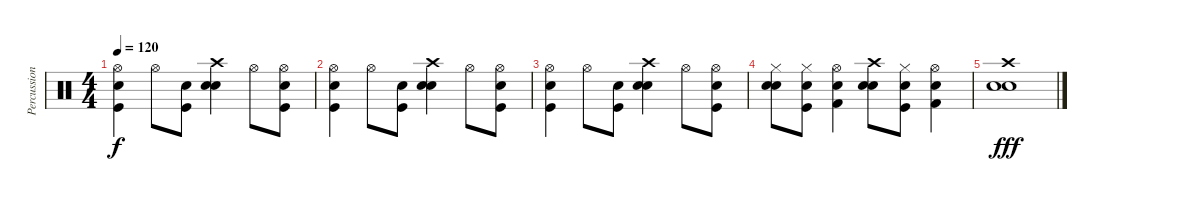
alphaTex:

\track ("Percussions" "Percussion") {instrument percussion}
\staff {score}
\articulation defaults
\ts (4 4)
\tempo 120
\clef neutral
\ks c
("Hi-Hat (open)" "Snare (hit) 2" "Kick (hit)").4{dy f} "Hi-Hat (open)".8 ("Snare (hit) 2" "Kick (hit)").8 ("Crash high (hit)" "Snare (hit) 2" "Electric Snare (hit)").4 "Hi-Hat (open)".8 ("Hi-Hat (open)" "Snare (hit) 2" "Kick (hit)").8 |
("Hi-Hat (open)" "Snare (hit) 2" "Kick (hit)").4 "Hi-Hat (open)".8 ("Snare (hit) 2" "Kick (hit)").8 ("Crash high (hit)" "Snare (hit) 2" "Electric Snare (hit)").4 "Hi-Hat (open)".8 ("Hi-Hat (open)" "Snare (hit) 2" "Kick (hit)").8 |
("Hi-Hat (open)" "Snare (hit) 2" "Kick (hit)").4 "Hi-Hat (open)".8 ("Snare (hit) 2" "Kick (hit)").8 ("Crash high (hit)" "Snare (hit) 2" "Electric Snare (hit)").4 "Hi-Hat (open)".8 ("Hi-Hat (open)" "Snare (hit) 2" "Kick (hit)").8 |
("Hi-Hat (closed)" "Snare (hit) 2" "Electric Snare (hit)").8 ("Hi-Hat (closed)" "Snare (hit) 2" "Kick (hit)").8 ("Hi-Hat (open)" "Snare (hit) 2" "Kick (hit) 2").4 ("Crash high (hit)" "Snare (hit) 2" "Electric Snare (hit)").8 ("Hi-Hat (closed)" "Snare (hit) 2" "Kick (hit)").8 ("Hi-Hat (open)" "Snare (hit) 2" "Kick (hit) 2").4 |
("Crash high (hit)" "Snare (hit) 2" "Electric Snare (hit)").1{dy fff}
